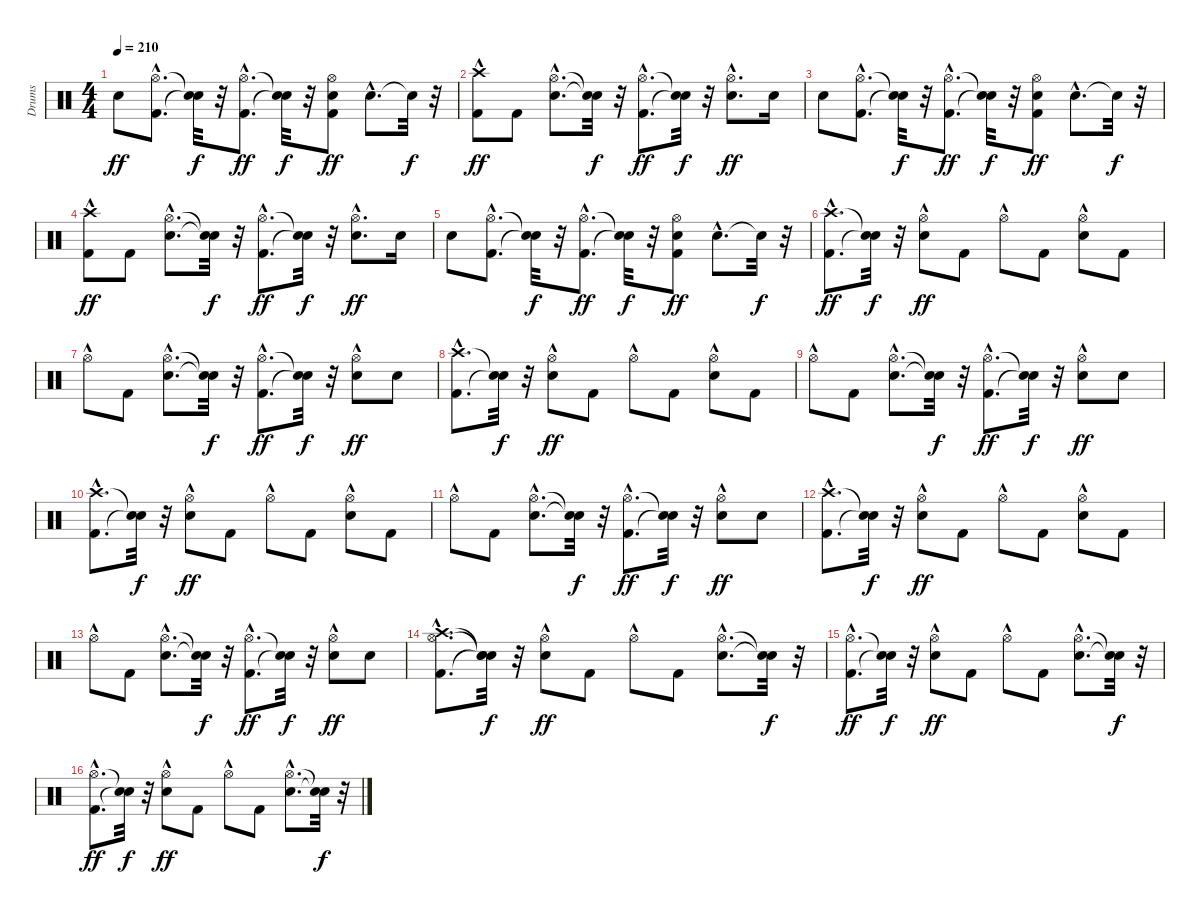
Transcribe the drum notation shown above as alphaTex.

\track ("Drums" "Drums") {instrument percussion}
\staff {score}
\articulation defaults
\ts (4 4)
\tempo 210
\clef neutral
\ks c "Snare (hit) 2".8{dy ff}
("Kick (hit) 2"{hac} "Hi-Hat (open)"{hac}).8{d} ("Snare (hit)"{t} "Snare (hit)"{t}).32{dy f} r.32 ("Kick (hit) 2"{hac} "Hi-Hat (open)"{hac}).8{d dy ff} ("Snare (hit)"{t} "Snare (hit)"{t}).32{dy f} r.32 ("Kick (hit) 2" "Snare (hit) 2" "Hi-Hat (open)").8{dy ff} "Snare (hit) 2"{hac}.8{d} "Snare (hit)"{t}.32{dy f} r.32 |
("Kick (hit) 2" "Crash high (hit)"{hac}).8{dy ff} "Kick (hit) 2".8 ("Snare (hit) 2"{hac} "Hi-Hat (open)"{hac}).8{d} ("Snare (hit)"{t} "Snare (hit)"{t}).32{dy f} r.32 ("Kick (hit) 2"{hac} "Hi-Hat (open)"{hac}).8{d dy ff} ("Snare (hit)"{t} "Snare (hit)"{t}).32{dy f} r.32 ("Snare (hit) 2"{hac} "Hi-Hat (open)"{hac}).8{d dy ff} "Snare (hit) 2".16 |
"Snare (hit) 2".8 ("Kick (hit) 2"{hac} "Hi-Hat (open)"{hac}).8{d} ("Snare (hit)"{t} "Snare (hit)"{t}).32{dy f} r.32 ("Kick (hit) 2"{hac} "Hi-Hat (open)"{hac}).8{d dy ff} ("Snare (hit)"{t} "Snare (hit)"{t}).32{dy f} r.32 ("Kick (hit) 2" "Snare (hit) 2" "Hi-Hat (open)").8{dy ff} "Snare (hit) 2"{hac}.8{d} "Snare (hit)"{t}.32{dy f} r.32 |
("Kick (hit) 2" "Crash high (hit)"{hac}).8{dy ff} "Kick (hit) 2".8 ("Snare (hit) 2"{hac} "Hi-Hat (open)"{hac}).8{d} ("Snare (hit)"{t} "Snare (hit)"{t}).32{dy f} r.32 ("Kick (hit) 2"{hac} "Hi-Hat (open)"{hac}).8{d dy ff} ("Snare (hit)"{t} "Snare (hit)"{t}).32{dy f} r.32 ("Snare (hit) 2"{hac} "Hi-Hat (open)"{hac}).8{d dy ff} "Snare (hit) 2".16 |
"Snare (hit) 2".8 ("Kick (hit) 2"{hac} "Hi-Hat (open)"{hac}).8{d} ("Snare (hit)"{t} "Snare (hit)"{t}).32{dy f} r.32 ("Kick (hit) 2"{hac} "Hi-Hat (open)"{hac}).8{d dy ff} ("Snare (hit)"{t} "Snare (hit)"{t}).32{dy f} r.32 ("Kick (hit) 2" "Snare (hit) 2" "Hi-Hat (open)").8{dy ff} "Snare (hit) 2"{hac}.8{d} "Snare (hit)"{t}.32{dy f} r.32 |
("Kick (hit) 2"{hac} "Crash high (hit)"{hac}).8{d dy ff} ("Snare (hit)"{t} "Snare (hit)"{t}).32{dy f} r.32 ("Snare (hit) 2" "Hi-Hat (open)"{hac}).8{dy ff} "Kick (hit) 2".8 "Hi-Hat (open)"{hac}.8 "Kick (hit) 2".8 ("Snare (hit) 2" "Hi-Hat (open)"{hac}).8 "Kick (hit) 2".8 |
"Hi-Hat (open)"{hac}.8 "Kick (hit) 2".8 ("Snare (hit) 2"{hac} "Hi-Hat (open)"{hac}).8{d} ("Snare (hit)"{t} "Snare (hit)"{t}).32{dy f} r.32 ("Kick (hit) 2"{hac} "Hi-Hat (open)"{hac}).8{d dy ff} ("Snare (hit)"{t} "Snare (hit)"{t}).32{dy f} r.32 ("Snare (hit) 2" "Hi-Hat (open)"{hac}).8{dy ff} "Snare (hit) 2".8 |
("Kick (hit) 2"{hac} "Crash high (hit)"{hac}).8{d} ("Snare (hit)"{t} "Snare (hit)"{t}).32{dy f} r.32 ("Snare (hit) 2" "Hi-Hat (open)"{hac}).8{dy ff} "Kick (hit) 2".8 "Hi-Hat (open)"{hac}.8 "Kick (hit) 2".8 ("Snare (hit) 2" "Hi-Hat (open)"{hac}).8 "Kick (hit) 2".8 |
"Hi-Hat (open)"{hac}.8 "Kick (hit) 2".8 ("Snare (hit) 2"{hac} "Hi-Hat (open)"{hac}).8{d} ("Snare (hit)"{t} "Snare (hit)"{t}).32{dy f} r.32 ("Kick (hit) 2"{hac} "Hi-Hat (open)"{hac}).8{d dy ff} ("Snare (hit)"{t} "Snare (hit)"{t}).32{dy f} r.32 ("Snare (hit) 2" "Hi-Hat (open)"{hac}).8{dy ff} "Snare (hit) 2".8 |
("Kick (hit) 2"{hac} "Crash high (hit)"{hac}).8{d} ("Snare (hit)"{t} "Snare (hit)"{t}).32{dy f} r.32 ("Snare (hit) 2" "Hi-Hat (open)"{hac}).8{dy ff} "Kick (hit) 2".8 "Hi-Hat (open)"{hac}.8 "Kick (hit) 2".8 ("Snare (hit) 2" "Hi-Hat (open)"{hac}).8 "Kick (hit) 2".8 |
"Hi-Hat (open)"{hac}.8 "Kick (hit) 2".8 ("Snare (hit) 2"{hac} "Hi-Hat (open)"{hac}).8{d} ("Snare (hit)"{t} "Snare (hit)"{t}).32{dy f} r.32 ("Kick (hit) 2"{hac} "Hi-Hat (open)"{hac}).8{d dy ff} ("Snare (hit)"{t} "Snare (hit)"{t}).32{dy f} r.32 ("Snare (hit) 2" "Hi-Hat (open)"{hac}).8{dy ff} "Snare (hit) 2".8 |
("Kick (hit) 2"{hac} "Crash high (hit)"{hac}).8{d} ("Snare (hit)"{t} "Snare (hit)"{t}).32{dy f} r.32 ("Snare (hit) 2" "Hi-Hat (open)"{hac}).8{dy ff} "Kick (hit) 2".8 "Hi-Hat (open)"{hac}.8 "Kick (hit) 2".8 ("Snare (hit) 2" "Hi-Hat (open)"{hac}).8 "Kick (hit) 2".8 |
"Hi-Hat (open)"{hac}.8 "Kick (hit) 2".8 ("Snare (hit) 2"{hac} "Hi-Hat (open)"{hac}).8{d} ("Snare (hit)"{t} "Snare (hit)"{t}).32{dy f} r.32 ("Kick (hit) 2"{hac} "Hi-Hat (open)"{hac}).8{d dy ff} ("Snare (hit)"{t} "Snare (hit)"{t}).32{dy f} r.32 ("Snare (hit) 2" "Hi-Hat (open)"{hac}).8{dy ff} "Snare (hit) 2".8 |
("Kick (hit) 2"{hac} "Hi-Hat (open)"{hac} "Crash high (hit)"{hac}).8{d} ("Snare (hit)"{t} "Snare (hit)"{t} "Snare (hit)"{t}).32{dy f} r.32 ("Snare (hit) 2" "Hi-Hat (open)"{hac}).8{dy ff} "Kick (hit) 2".8 "Hi-Hat (open)"{hac}.8 "Kick (hit) 2".8 ("Snare (hit) 2"{hac} "Hi-Hat (open)"{hac}).8{d} ("Snare (hit)"{t} "Snare (hit)"{t}).32{dy f} r.32 |
("Kick (hit) 2"{hac} "Hi-Hat (open)"{hac}).8{d dy ff} ("Snare (hit)"{t} "Snare (hit)"{t}).32{dy f} r.32 ("Snare (hit) 2" "Hi-Hat (open)"{hac}).8{dy ff} "Kick (hit) 2".8 "Hi-Hat (open)"{hac}.8 "Kick (hit) 2".8 ("Snare (hit) 2"{hac} "Hi-Hat (open)"{hac}).8{d} ("Snare (hit)"{t} "Snare (hit)"{t}).32{dy f} r.32 |
("Kick (hit) 2"{hac} "Hi-Hat (open)"{hac}).8{d dy ff} ("Snare (hit)"{t} "Snare (hit)"{t}).32{dy f} r.32 ("Snare (hit) 2" "Hi-Hat (open)"{hac}).8{dy ff} "Kick (hit) 2".8 "Hi-Hat (open)"{hac}.8 "Kick (hit) 2".8 ("Snare (hit) 2"{hac} "Hi-Hat (open)"{hac}).8{d} ("Snare (hit)"{t} "Snare (hit)"{t}).32{dy f} r.32
